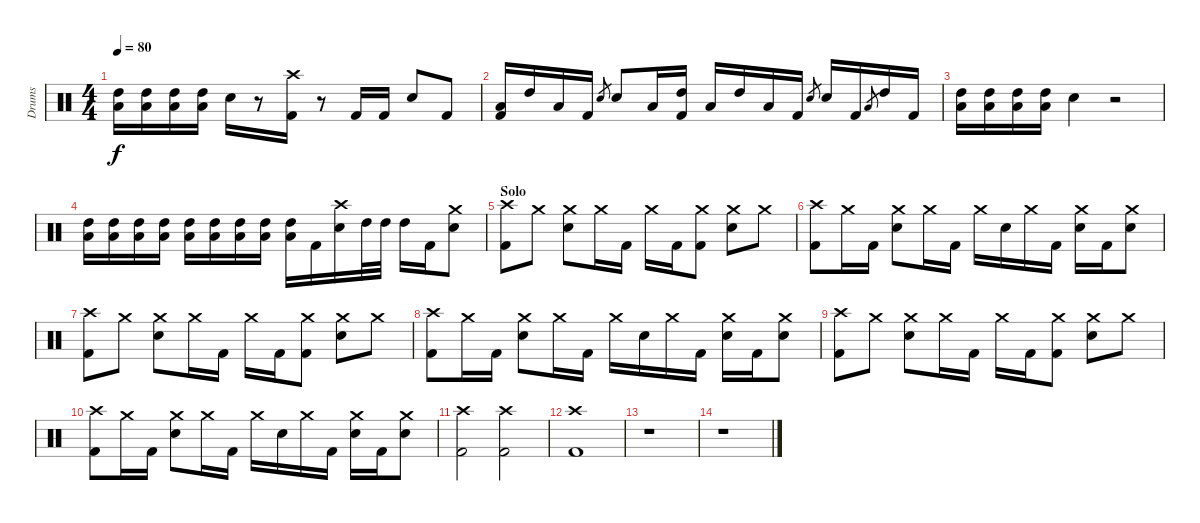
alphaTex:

\track ("Drums" "Drums") {instrument percussion}
\staff {score}
\articulation defaults
\ts (4 4)
\tempo 80
\clef neutral
\ks c
("High Tom (hit)" "Low Floor Tom (hit)").16{dy f} ("High Tom (hit)" "Low Floor Tom (hit)").16 ("High Tom (hit)" "Low Floor Tom (hit)").16 ("High Tom (hit)" "Low Floor Tom (hit)").16 "Snare (hit) 2".16 r.8 ("Crash high (hit)" "Kick (hit) 2").16 r.8 "Kick (hit) 2".16 "Kick (hit) 2".16 "Snare (hit) 2".8 "Kick (hit) 2".8 |
("Low Floor Tom (hit)" "Kick (hit) 2").16 "High Tom (hit)".16 "Low Floor Tom (hit)".16 "Kick (hit) 2".16 "Snare (hit) 2".8{gr} "Snare (hit) 2".8 "Low Floor Tom (hit)".16 ("High Tom (hit)" "Kick (hit) 2").16 "Low Floor Tom (hit)".16 "High Tom (hit)".16 "Low Floor Tom (hit)".16 "Kick (hit) 2".16 "Snare (hit) 2".8{gr} "Snare (hit) 2".16 "Kick (hit) 2".16 "Low Floor Tom (hit)".8{gr} "High Tom (hit)".16 "Kick (hit) 2".16 |
("High Tom (hit)" "Low Floor Tom (hit)").16 ("High Tom (hit)" "Low Floor Tom (hit)").16 ("High Tom (hit)" "Low Floor Tom (hit)").16 ("High Tom (hit)" "Low Floor Tom (hit)").16 "Snare (hit) 2".4 r.2 |
("High Tom (hit)" "Low Floor Tom (hit)").16 ("High Tom (hit)" "Low Floor Tom (hit)").16 ("High Tom (hit)" "Low Floor Tom (hit)").16 ("High Tom (hit)" "Low Floor Tom (hit)").16 ("High Tom (hit)" "Low Floor Tom (hit)").16 ("High Tom (hit)" "Low Floor Tom (hit)").16 ("High Tom (hit)" "Low Floor Tom (hit)").16 ("High Tom (hit)" "Low Floor Tom (hit)").16 ("High Tom (hit)" "Low Floor Tom (hit)").16 "Kick (hit) 2".16 ("Crash high (hit)" "Snare (hit) 2").16 "High Tom (hit)".32 "High Tom (hit)".32 "High Tom (hit)".16 "Kick (hit) 2".16 ("Crash medium (hit)" "Snare (hit) 2").8 |
\section ("" "Solo")
("Crash high (hit)" "Kick (hit) 2").8 "Crash medium (hit)".8 ("Crash medium (hit)" "Snare (hit) 2").8 "Crash medium (hit)".16 "Kick (hit) 2".16 "Crash medium (hit)".16 "Kick (hit) 2".16 ("Crash medium (hit)" "Kick (hit) 2").8 ("Crash medium (hit)" "Snare (hit) 2").8 "Crash medium (hit)".8 |
("Crash high (hit)" "Kick (hit) 2").8 "Crash medium (hit)".16 "Kick (hit) 2".16 ("Crash medium (hit)" "Snare (hit) 2").8 "Crash medium (hit)".16 "Kick (hit) 2".16 "Crash medium (hit)".16 "Snare (hit) 2".16 "Crash medium (hit)".16 "Kick (hit) 2".16 ("Crash medium (hit)" "Snare (hit) 2").16 "Kick (hit) 2".16 ("Crash medium (hit)" "Snare (hit) 2").8 |
("Crash high (hit)" "Kick (hit) 2").8 "Crash medium (hit)".8 ("Crash medium (hit)" "Snare (hit) 2").8 "Crash medium (hit)".16 "Kick (hit) 2".16 "Crash medium (hit)".16 "Kick (hit) 2".16 ("Crash medium (hit)" "Kick (hit) 2").8 ("Crash medium (hit)" "Snare (hit) 2").8 "Crash medium (hit)".8 |
("Crash high (hit)" "Kick (hit) 2").8 "Crash medium (hit)".16 "Kick (hit) 2".16 ("Crash medium (hit)" "Snare (hit) 2").8 "Crash medium (hit)".16 "Kick (hit) 2".16 "Crash medium (hit)".16 "Snare (hit) 2".16 "Crash medium (hit)".16 "Kick (hit) 2".16 ("Crash medium (hit)" "Snare (hit) 2").16 "Kick (hit) 2".16 ("Crash medium (hit)" "Snare (hit) 2").8 |
("Crash high (hit)" "Kick (hit) 2").8 "Crash medium (hit)".8 ("Crash medium (hit)" "Snare (hit) 2").8 "Crash medium (hit)".16 "Kick (hit) 2".16 "Crash medium (hit)".16 "Kick (hit) 2".16 ("Crash medium (hit)" "Kick (hit) 2").8 ("Crash medium (hit)" "Snare (hit) 2").8 "Crash medium (hit)".8 |
("Crash high (hit)" "Kick (hit) 2").8 "Crash medium (hit)".16 "Kick (hit) 2".16 ("Crash medium (hit)" "Snare (hit) 2").8 "Crash medium (hit)".16 "Kick (hit) 2".16 "Crash medium (hit)".16 "Snare (hit) 2".16 "Crash medium (hit)".16 "Kick (hit) 2".16 ("Crash medium (hit)" "Snare (hit) 2").16 "Kick (hit) 2".16 ("Crash medium (hit)" "Snare (hit) 2").8 |
("Crash high (hit)" "Kick (hit) 2").2 ("Crash high (hit)" "Kick (hit) 2").2 |
("Crash high (hit)" "Kick (hit) 2").1 |
r.1 |
r.1
